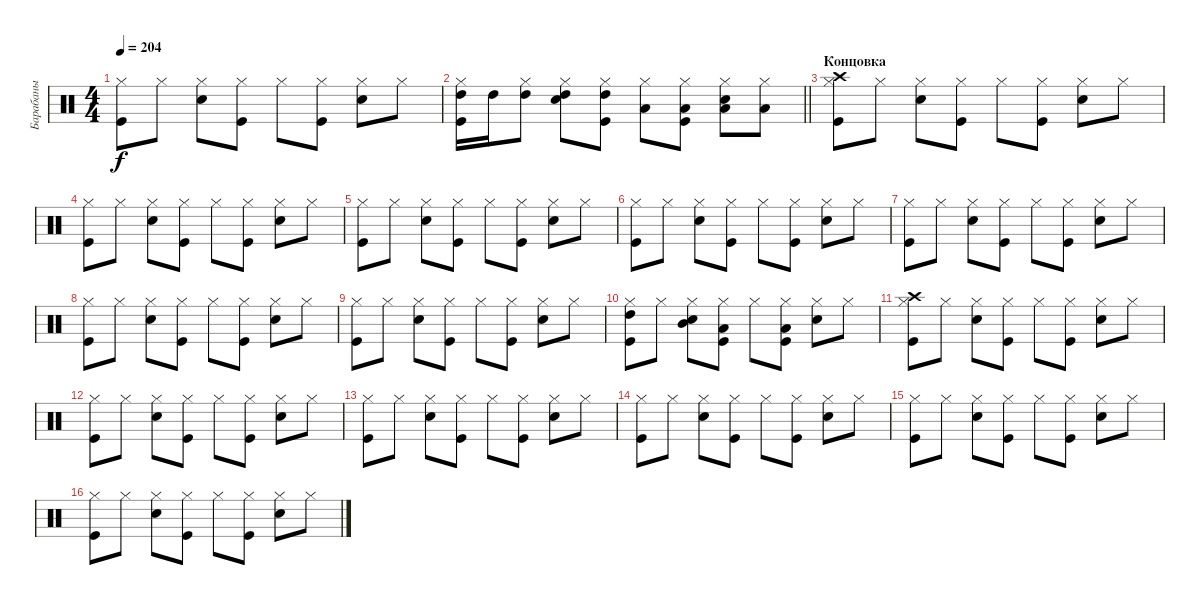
\track ("Барабаны" "Барабаны") {instrument percussion}
\staff {score}
\articulation defaults
\ts (4 4)
\tempo 204
\clef neutral
\ks c
("Kick (hit)" "Hi-Hat (closed)").8{dy f} "Hi-Hat (closed)".8 ("Snare (hit) 2" "Hi-Hat (closed)").8 ("Kick (hit)" "Hi-Hat (closed)").8 "Hi-Hat (closed)".8 ("Kick (hit)" "Hi-Hat (closed)").8 ("Snare (hit) 2" "Hi-Hat (closed)").8 "Hi-Hat (closed)".8 |
\barLineRight lightlight
("Kick (hit)" "Hi-Hat (closed)" "High Tom (hit)").16 "High Tom (hit)".16 ("Hi-Hat (closed)" "High Tom (hit)").8 ("Snare (hit) 2" "Hi-Hat (closed)" "High Tom (hit)").8 ("Kick (hit)" "Hi-Hat (closed)" "High Tom (hit)").8 ("Hi-Hat (closed)" "Low Tom (hit)").8 ("Kick (hit)" "Hi-Hat (closed)" "Low Tom (hit)").8 ("Snare (hit) 2" "Hi-Hat (closed)" "Low Tom (hit)").8 ("Hi-Hat (closed)" "Low Tom (hit)").8 |
\section ("" "Концовка")
("Kick (hit)" "Hi-Hat (closed)" "Crash high (hit)").8 "Hi-Hat (closed)".8 ("Snare (hit) 2" "Hi-Hat (closed)").8 ("Kick (hit)" "Hi-Hat (closed)").8 "Hi-Hat (closed)".8 ("Kick (hit)" "Hi-Hat (closed)").8 ("Snare (hit) 2" "Hi-Hat (closed)").8 "Hi-Hat (closed)".8 |
("Kick (hit)" "Hi-Hat (closed)").8 "Hi-Hat (closed)".8 ("Snare (hit) 2" "Hi-Hat (closed)").8 ("Kick (hit)" "Hi-Hat (closed)").8 "Hi-Hat (closed)".8 ("Kick (hit)" "Hi-Hat (closed)").8 ("Snare (hit) 2" "Hi-Hat (closed)").8 "Hi-Hat (closed)".8 |
("Kick (hit)" "Hi-Hat (closed)").8 "Hi-Hat (closed)".8 ("Snare (hit) 2" "Hi-Hat (closed)").8 ("Kick (hit)" "Hi-Hat (closed)").8 "Hi-Hat (closed)".8 ("Kick (hit)" "Hi-Hat (closed)").8 ("Snare (hit) 2" "Hi-Hat (closed)").8 "Hi-Hat (closed)".8 |
("Kick (hit)" "Hi-Hat (closed)").8 "Hi-Hat (closed)".8 ("Snare (hit) 2" "Hi-Hat (closed)").8 ("Kick (hit)" "Hi-Hat (closed)").8 "Hi-Hat (closed)".8 ("Kick (hit)" "Hi-Hat (closed)").8 ("Snare (hit) 2" "Hi-Hat (closed)").8 "Hi-Hat (closed)".8 |
("Kick (hit)" "Hi-Hat (closed)").8 "Hi-Hat (closed)".8 ("Snare (hit) 2" "Hi-Hat (closed)").8 ("Kick (hit)" "Hi-Hat (closed)").8 "Hi-Hat (closed)".8 ("Kick (hit)" "Hi-Hat (closed)").8 ("Snare (hit) 2" "Hi-Hat (closed)").8 "Hi-Hat (closed)".8 |
("Kick (hit)" "Hi-Hat (closed)").8 "Hi-Hat (closed)".8 ("Snare (hit) 2" "Hi-Hat (closed)").8 ("Kick (hit)" "Hi-Hat (closed)").8 "Hi-Hat (closed)".8 ("Kick (hit)" "Hi-Hat (closed)").8 ("Snare (hit) 2" "Hi-Hat (closed)").8 "Hi-Hat (closed)".8 |
("Kick (hit)" "Hi-Hat (closed)").8 "Hi-Hat (closed)".8 ("Snare (hit) 2" "Hi-Hat (closed)").8 ("Kick (hit)" "Hi-Hat (closed)").8 "Hi-Hat (closed)".8 ("Kick (hit)" "Hi-Hat (closed)").8 ("Snare (hit) 2" "Hi-Hat (closed)").8 "Hi-Hat (closed)".8 |
("Kick (hit)" "Hi-Hat (closed)" "High Tom (hit)").8 "Hi-Hat (closed)".8 ("Snare (hit) 2" "Hi-Hat (closed)" "Mid Tom (hit)").8 ("Kick (hit)" "Hi-Hat (closed)" "Low Tom (hit)").8 "Hi-Hat (closed)".8 ("Kick (hit)" "Hi-Hat (closed)" "Low Floor Tom (hit)").8 ("Snare (hit) 2" "Hi-Hat (closed)").8 "Hi-Hat (closed)".8 |
("Kick (hit)" "Hi-Hat (closed)" "Crash high (hit)").8 "Hi-Hat (closed)".8 ("Snare (hit) 2" "Hi-Hat (closed)").8 ("Kick (hit)" "Hi-Hat (closed)").8 "Hi-Hat (closed)".8 ("Kick (hit)" "Hi-Hat (closed)").8 ("Snare (hit) 2" "Hi-Hat (closed)").8 "Hi-Hat (closed)".8 |
("Kick (hit)" "Hi-Hat (closed)").8 "Hi-Hat (closed)".8 ("Snare (hit) 2" "Hi-Hat (closed)").8 ("Kick (hit)" "Hi-Hat (closed)").8 "Hi-Hat (closed)".8 ("Kick (hit)" "Hi-Hat (closed)").8 ("Snare (hit) 2" "Hi-Hat (closed)").8 "Hi-Hat (closed)".8 |
("Kick (hit)" "Hi-Hat (closed)").8 "Hi-Hat (closed)".8 ("Snare (hit) 2" "Hi-Hat (closed)").8 ("Kick (hit)" "Hi-Hat (closed)").8 "Hi-Hat (closed)".8 ("Kick (hit)" "Hi-Hat (closed)").8 ("Snare (hit) 2" "Hi-Hat (closed)").8 "Hi-Hat (closed)".8 |
("Kick (hit)" "Hi-Hat (closed)").8 "Hi-Hat (closed)".8 ("Snare (hit) 2" "Hi-Hat (closed)").8 ("Kick (hit)" "Hi-Hat (closed)").8 "Hi-Hat (closed)".8 ("Kick (hit)" "Hi-Hat (closed)").8 ("Snare (hit) 2" "Hi-Hat (closed)").8 "Hi-Hat (closed)".8 |
("Kick (hit)" "Hi-Hat (closed)").8 "Hi-Hat (closed)".8 ("Snare (hit) 2" "Hi-Hat (closed)").8 ("Kick (hit)" "Hi-Hat (closed)").8 "Hi-Hat (closed)".8 ("Kick (hit)" "Hi-Hat (closed)").8 ("Snare (hit) 2" "Hi-Hat (closed)").8 "Hi-Hat (closed)".8 |
("Kick (hit)" "Hi-Hat (closed)").8 "Hi-Hat (closed)".8 ("Snare (hit) 2" "Hi-Hat (closed)").8 ("Kick (hit)" "Hi-Hat (closed)").8 "Hi-Hat (closed)".8 ("Kick (hit)" "Hi-Hat (closed)").8 ("Snare (hit) 2" "Hi-Hat (closed)").8 "Hi-Hat (closed)".8
